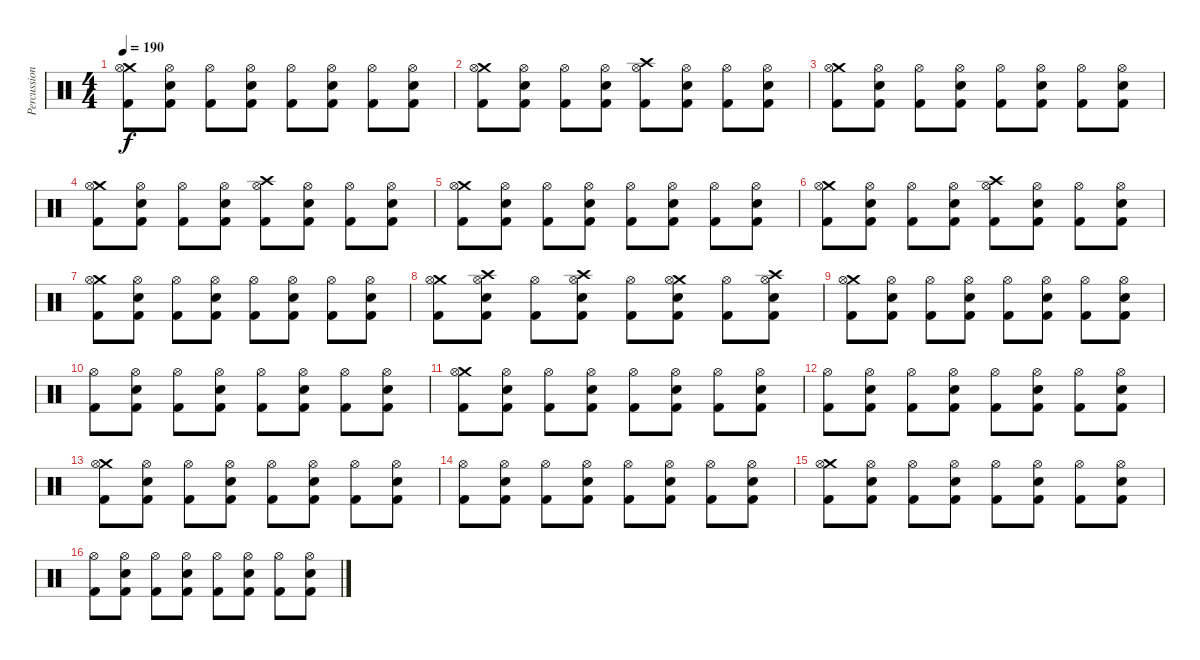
\track ("Percussion" "Percussion") {instrument percussion}
\staff {score}
\articulation defaults
\ts (4 4)
\tempo 190
\clef neutral
\ks c
("Crash medium (hit)" "Hi-Hat (open)" "Kick (hit) 2").8{dy f} ("Hi-Hat (open)" "Snare (hit) 2" "Kick (hit) 2").8 ("Hi-Hat (open)" "Kick (hit) 2").8 ("Hi-Hat (open)" "Snare (hit) 2" "Kick (hit) 2").8 ("Hi-Hat (open)" "Kick (hit) 2").8 ("Hi-Hat (open)" "Snare (hit) 2" "Kick (hit) 2").8 ("Hi-Hat (open)" "Kick (hit) 2").8 ("Hi-Hat (open)" "Snare (hit) 2" "Kick (hit) 2").8 |
("Crash medium (hit)" "Hi-Hat (open)" "Kick (hit) 2").8 ("Hi-Hat (open)" "Snare (hit) 2" "Kick (hit) 2").8 ("Hi-Hat (open)" "Kick (hit) 2").8 ("Hi-Hat (open)" "Snare (hit) 2" "Kick (hit) 2").8 ("Crash high (hit)" "Hi-Hat (open)" "Kick (hit) 2").8 ("Hi-Hat (open)" "Snare (hit) 2" "Kick (hit) 2").8 ("Hi-Hat (open)" "Kick (hit) 2").8 ("Hi-Hat (open)" "Snare (hit) 2" "Kick (hit) 2").8 |
("Crash medium (hit)" "Hi-Hat (open)" "Kick (hit) 2").8 ("Hi-Hat (open)" "Snare (hit) 2" "Kick (hit) 2").8 ("Hi-Hat (open)" "Kick (hit) 2").8 ("Hi-Hat (open)" "Snare (hit) 2" "Kick (hit) 2").8 ("Hi-Hat (open)" "Kick (hit) 2").8 ("Hi-Hat (open)" "Snare (hit) 2" "Kick (hit) 2").8 ("Hi-Hat (open)" "Kick (hit) 2").8 ("Hi-Hat (open)" "Snare (hit) 2" "Kick (hit) 2").8 |
("Crash medium (hit)" "Hi-Hat (open)" "Kick (hit) 2").8 ("Hi-Hat (open)" "Snare (hit) 2" "Kick (hit) 2").8 ("Hi-Hat (open)" "Kick (hit) 2").8 ("Hi-Hat (open)" "Snare (hit) 2" "Kick (hit) 2").8 ("Crash high (hit)" "Hi-Hat (open)" "Kick (hit) 2").8 ("Hi-Hat (open)" "Snare (hit) 2" "Kick (hit) 2").8 ("Hi-Hat (open)" "Kick (hit) 2").8 ("Hi-Hat (open)" "Snare (hit) 2" "Kick (hit) 2").8 |
("Crash medium (hit)" "Hi-Hat (open)" "Kick (hit) 2").8 ("Hi-Hat (open)" "Snare (hit) 2" "Kick (hit) 2").8 ("Hi-Hat (open)" "Kick (hit) 2").8 ("Hi-Hat (open)" "Snare (hit) 2" "Kick (hit) 2").8 ("Hi-Hat (open)" "Kick (hit) 2").8 ("Hi-Hat (open)" "Snare (hit) 2" "Kick (hit) 2").8 ("Hi-Hat (open)" "Kick (hit) 2").8 ("Hi-Hat (open)" "Snare (hit) 2" "Kick (hit) 2").8 |
("Crash medium (hit)" "Hi-Hat (open)" "Kick (hit) 2").8 ("Hi-Hat (open)" "Snare (hit) 2" "Kick (hit) 2").8 ("Hi-Hat (open)" "Kick (hit) 2").8 ("Hi-Hat (open)" "Snare (hit) 2" "Kick (hit) 2").8 ("Crash high (hit)" "Hi-Hat (open)" "Kick (hit) 2").8 ("Hi-Hat (open)" "Snare (hit) 2" "Kick (hit) 2").8 ("Hi-Hat (open)" "Kick (hit) 2").8 ("Hi-Hat (open)" "Snare (hit) 2" "Kick (hit) 2").8 |
("Crash medium (hit)" "Hi-Hat (open)" "Kick (hit) 2").8 ("Hi-Hat (open)" "Snare (hit) 2" "Kick (hit) 2").8 ("Hi-Hat (open)" "Kick (hit) 2").8 ("Hi-Hat (open)" "Snare (hit) 2" "Kick (hit) 2").8 ("Hi-Hat (open)" "Kick (hit) 2").8 ("Hi-Hat (open)" "Snare (hit) 2" "Kick (hit) 2").8 ("Hi-Hat (open)" "Kick (hit) 2").8 ("Hi-Hat (open)" "Snare (hit) 2" "Kick (hit) 2").8 |
("Crash medium (hit)" "Hi-Hat (open)" "Kick (hit) 2").8 ("Crash high (hit)" "Hi-Hat (open)" "Snare (hit) 2" "Kick (hit) 2").8 ("Hi-Hat (open)" "Kick (hit) 2").8 ("Crash high (hit)" "Hi-Hat (open)" "Snare (hit) 2" "Kick (hit) 2").8 ("Hi-Hat (open)" "Kick (hit) 2").8 ("Crash medium (hit)" "Hi-Hat (open)" "Snare (hit) 2" "Kick (hit) 2").8 ("Hi-Hat (open)" "Kick (hit) 2").8 ("Crash high (hit)" "Hi-Hat (open)" "Snare (hit) 2" "Kick (hit) 2").8 |
("Crash medium (hit)" "Hi-Hat (open)" "Kick (hit) 2").8 ("Hi-Hat (open)" "Snare (hit) 2" "Kick (hit) 2").8 ("Hi-Hat (open)" "Kick (hit) 2").8 ("Hi-Hat (open)" "Snare (hit) 2" "Kick (hit) 2").8 ("Hi-Hat (open)" "Kick (hit) 2").8 ("Hi-Hat (open)" "Snare (hit) 2" "Kick (hit) 2").8 ("Hi-Hat (open)" "Kick (hit) 2").8 ("Hi-Hat (open)" "Snare (hit) 2" "Kick (hit) 2").8 |
("Hi-Hat (open)" "Kick (hit) 2").8 ("Hi-Hat (open)" "Snare (hit) 2" "Kick (hit) 2").8 ("Hi-Hat (open)" "Kick (hit) 2").8 ("Hi-Hat (open)" "Snare (hit) 2" "Kick (hit) 2").8 ("Hi-Hat (open)" "Kick (hit) 2").8 ("Hi-Hat (open)" "Snare (hit) 2" "Kick (hit) 2").8 ("Hi-Hat (open)" "Kick (hit) 2").8 ("Hi-Hat (open)" "Snare (hit) 2" "Kick (hit) 2").8 |
("Crash medium (hit)" "Hi-Hat (open)" "Kick (hit) 2").8 ("Hi-Hat (open)" "Snare (hit) 2" "Kick (hit) 2").8 ("Hi-Hat (open)" "Kick (hit) 2").8 ("Hi-Hat (open)" "Snare (hit) 2" "Kick (hit) 2").8 ("Hi-Hat (open)" "Kick (hit) 2").8 ("Hi-Hat (open)" "Snare (hit) 2" "Kick (hit) 2").8 ("Hi-Hat (open)" "Kick (hit) 2").8 ("Hi-Hat (open)" "Snare (hit) 2" "Kick (hit) 2").8 |
("Hi-Hat (open)" "Kick (hit) 2").8 ("Hi-Hat (open)" "Snare (hit) 2" "Kick (hit) 2").8 ("Hi-Hat (open)" "Kick (hit) 2").8 ("Hi-Hat (open)" "Snare (hit) 2" "Kick (hit) 2").8 ("Hi-Hat (open)" "Kick (hit) 2").8 ("Hi-Hat (open)" "Snare (hit) 2" "Kick (hit) 2").8 ("Hi-Hat (open)" "Kick (hit) 2").8 ("Hi-Hat (open)" "Snare (hit) 2" "Kick (hit) 2").8 |
("Crash medium (hit)" "Hi-Hat (open)" "Kick (hit) 2").8 ("Hi-Hat (open)" "Snare (hit) 2" "Kick (hit) 2").8 ("Hi-Hat (open)" "Kick (hit) 2").8 ("Hi-Hat (open)" "Snare (hit) 2" "Kick (hit) 2").8 ("Hi-Hat (open)" "Kick (hit) 2").8 ("Hi-Hat (open)" "Snare (hit) 2" "Kick (hit) 2").8 ("Hi-Hat (open)" "Kick (hit) 2").8 ("Hi-Hat (open)" "Snare (hit) 2" "Kick (hit) 2").8 |
("Hi-Hat (open)" "Kick (hit) 2").8 ("Hi-Hat (open)" "Snare (hit) 2" "Kick (hit) 2").8 ("Hi-Hat (open)" "Kick (hit) 2").8 ("Hi-Hat (open)" "Snare (hit) 2" "Kick (hit) 2").8 ("Hi-Hat (open)" "Kick (hit) 2").8 ("Hi-Hat (open)" "Snare (hit) 2" "Kick (hit) 2").8 ("Hi-Hat (open)" "Kick (hit) 2").8 ("Hi-Hat (open)" "Snare (hit) 2" "Kick (hit) 2").8 |
("Crash medium (hit)" "Hi-Hat (open)" "Kick (hit) 2").8 ("Hi-Hat (open)" "Snare (hit) 2" "Kick (hit) 2").8 ("Hi-Hat (open)" "Kick (hit) 2").8 ("Hi-Hat (open)" "Snare (hit) 2" "Kick (hit) 2").8 ("Hi-Hat (open)" "Kick (hit) 2").8 ("Hi-Hat (open)" "Snare (hit) 2" "Kick (hit) 2").8 ("Hi-Hat (open)" "Kick (hit) 2").8 ("Hi-Hat (open)" "Snare (hit) 2" "Kick (hit) 2").8 |
("Hi-Hat (open)" "Kick (hit) 2").8 ("Hi-Hat (open)" "Snare (hit) 2" "Kick (hit) 2").8 ("Hi-Hat (open)" "Kick (hit) 2").8 ("Hi-Hat (open)" "Snare (hit) 2" "Kick (hit) 2").8 ("Hi-Hat (open)" "Kick (hit) 2").8 ("Hi-Hat (open)" "Snare (hit) 2" "Kick (hit) 2").8 ("Hi-Hat (open)" "Kick (hit) 2").8 ("Hi-Hat (open)" "Snare (hit) 2" "Kick (hit) 2").8
